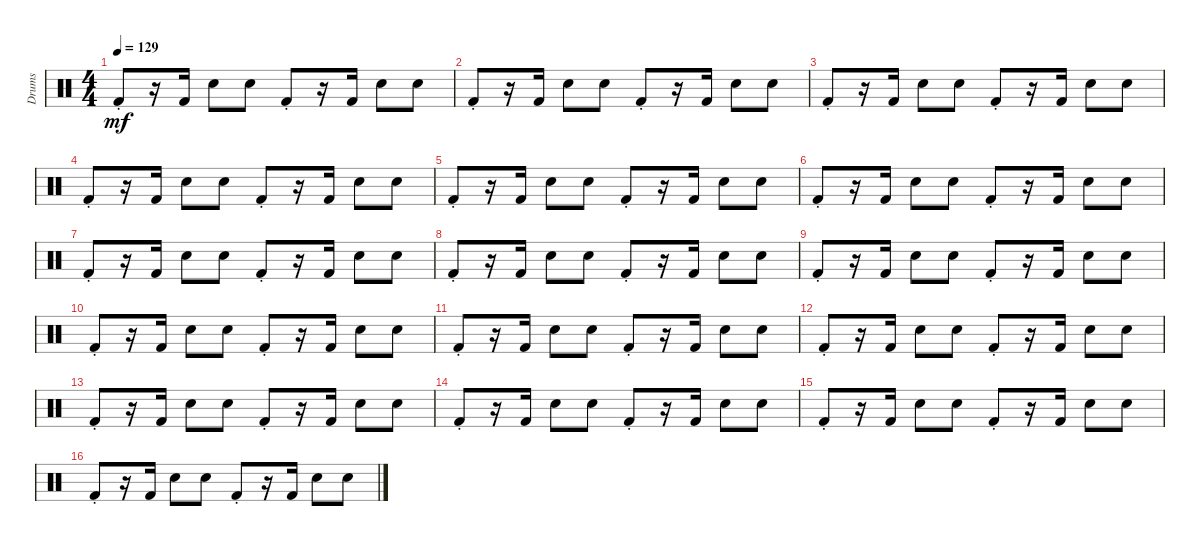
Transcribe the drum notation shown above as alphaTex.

\track ("Drums" "Drums") {instrument percussion}
\staff {score}
\articulation defaults
\ts (4 4)
\tempo 129
\clef neutral
\ks c "Kick (hit) 2"{st}.8{dy mf}
r.16 "Kick (hit) 2".16 "Electric Snare (hit)".8 "Electric Snare (hit)".8 "Kick (hit) 2"{st}.8 r.16 "Kick (hit) 2".16 "Electric Snare (hit)".8 "Electric Snare (hit)".8 |
"Kick (hit) 2"{st}.8 r.16 "Kick (hit) 2".16 "Electric Snare (hit)".8 "Electric Snare (hit)".8 "Kick (hit) 2"{st}.8 r.16 "Kick (hit) 2".16 "Electric Snare (hit)".8 "Electric Snare (hit)".8 |
"Kick (hit) 2"{st}.8 r.16 "Kick (hit) 2".16 "Electric Snare (hit)".8 "Electric Snare (hit)".8 "Kick (hit) 2"{st}.8 r.16 "Kick (hit) 2".16 "Electric Snare (hit)".8 "Electric Snare (hit)".8 |
"Kick (hit) 2"{st}.8 r.16 "Kick (hit) 2".16 "Electric Snare (hit)".8 "Electric Snare (hit)".8 "Kick (hit) 2"{st}.8 r.16 "Kick (hit) 2".16 "Electric Snare (hit)".8 "Electric Snare (hit)".8 |
"Kick (hit) 2"{st}.8 r.16 "Kick (hit) 2".16 "Electric Snare (hit)".8 "Electric Snare (hit)".8 "Kick (hit) 2"{st}.8 r.16 "Kick (hit) 2".16 "Electric Snare (hit)".8 "Electric Snare (hit)".8 |
"Kick (hit) 2"{st}.8 r.16 "Kick (hit) 2".16 "Electric Snare (hit)".8 "Electric Snare (hit)".8 "Kick (hit) 2"{st}.8 r.16 "Kick (hit) 2".16 "Electric Snare (hit)".8 "Electric Snare (hit)".8 |
"Kick (hit) 2"{st}.8 r.16 "Kick (hit) 2".16 "Electric Snare (hit)".8 "Electric Snare (hit)".8 "Kick (hit) 2"{st}.8 r.16 "Kick (hit) 2".16 "Electric Snare (hit)".8 "Electric Snare (hit)".8 |
"Kick (hit) 2"{st}.8 r.16 "Kick (hit) 2".16 "Electric Snare (hit)".8 "Electric Snare (hit)".8 "Kick (hit) 2"{st}.8 r.16 "Kick (hit) 2".16 "Electric Snare (hit)".8 "Electric Snare (hit)".8 |
"Kick (hit) 2"{st}.8 r.16 "Kick (hit) 2".16 "Electric Snare (hit)".8 "Electric Snare (hit)".8 "Kick (hit) 2"{st}.8 r.16 "Kick (hit) 2".16 "Electric Snare (hit)".8 "Electric Snare (hit)".8 |
"Kick (hit) 2"{st}.8 r.16 "Kick (hit) 2".16 "Electric Snare (hit)".8 "Electric Snare (hit)".8 "Kick (hit) 2"{st}.8 r.16 "Kick (hit) 2".16 "Electric Snare (hit)".8 "Electric Snare (hit)".8 |
"Kick (hit) 2"{st}.8 r.16 "Kick (hit) 2".16 "Electric Snare (hit)".8 "Electric Snare (hit)".8 "Kick (hit) 2"{st}.8 r.16 "Kick (hit) 2".16 "Electric Snare (hit)".8 "Electric Snare (hit)".8 |
"Kick (hit) 2"{st}.8 r.16 "Kick (hit) 2".16 "Electric Snare (hit)".8 "Electric Snare (hit)".8 "Kick (hit) 2"{st}.8 r.16 "Kick (hit) 2".16 "Electric Snare (hit)".8 "Electric Snare (hit)".8 |
"Kick (hit) 2"{st}.8 r.16 "Kick (hit) 2".16 "Electric Snare (hit)".8 "Electric Snare (hit)".8 "Kick (hit) 2"{st}.8 r.16 "Kick (hit) 2".16 "Electric Snare (hit)".8 "Electric Snare (hit)".8 |
"Kick (hit) 2"{st}.8 r.16 "Kick (hit) 2".16 "Electric Snare (hit)".8 "Electric Snare (hit)".8 "Kick (hit) 2"{st}.8 r.16 "Kick (hit) 2".16 "Electric Snare (hit)".8 "Electric Snare (hit)".8 |
"Kick (hit) 2"{st}.8 r.16 "Kick (hit) 2".16 "Electric Snare (hit)".8 "Electric Snare (hit)".8 "Kick (hit) 2"{st}.8 r.16 "Kick (hit) 2".16 "Electric Snare (hit)".8 "Electric Snare (hit)".8 |
"Kick (hit) 2"{st}.8 r.16 "Kick (hit) 2".16 "Electric Snare (hit)".8 "Electric Snare (hit)".8 "Kick (hit) 2"{st}.8 r.16 "Kick (hit) 2".16 "Electric Snare (hit)".8 "Electric Snare (hit)".8
